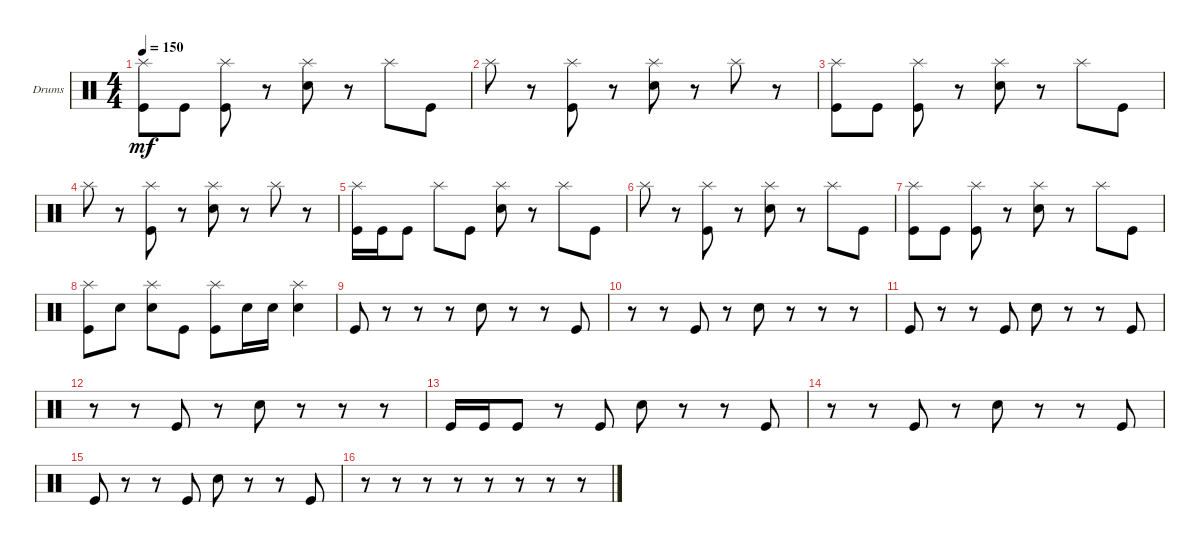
\bracketExtendMode groupsimilarinstruments
\firstSystemTrackNameOrientation horizontal
\otherSystemsTrackNameOrientation horizontal
\track ("Drumkit" "Drums") {instrument percussion}
\staff {score}
\articulation defaults
\ts (4 4)
\tempo 150
\clef neutral
\ks c
("Kick (hit)" "Splash (hit)").8{dy mf} "Kick (hit)".8 ("Kick (hit)" "Splash (hit)").8 r.8 ("Snare (hit) 2" "Splash (hit)").8 r.8 "Splash (hit)".8 "Kick (hit)".8 |
"Splash (hit)".8 r.8 ("Kick (hit)" "Splash (hit)").8 r.8 ("Snare (hit) 2" "Splash (hit)").8 r.8 "Splash (hit)".8 r.8 |
("Kick (hit)" "Splash (hit)").8 "Kick (hit)".8 ("Kick (hit)" "Splash (hit)").8 r.8 ("Snare (hit) 2" "Splash (hit)").8 r.8 "Splash (hit)".8 "Kick (hit)".8 |
"Splash (hit)".8 r.8 ("Kick (hit)" "Splash (hit)").8 r.8 ("Snare (hit) 2" "Splash (hit)").8 r.8 "Splash (hit)".8 r.8 |
("Kick (hit)" "Splash (hit)").16 "Kick (hit)".16 "Kick (hit)".8 "Splash (hit)".8 "Kick (hit)".8 ("Snare (hit) 2" "Splash (hit)").8 r.8 "Splash (hit)".8 "Kick (hit)".8 |
"Splash (hit)".8 r.8 ("Kick (hit)" "Splash (hit)").8 r.8 ("Snare (hit) 2" "Splash (hit)").8 r.8 "Splash (hit)".8 "Kick (hit)".8 |
("Kick (hit)" "Splash (hit)").8 "Kick (hit)".8 ("Kick (hit)" "Splash (hit)").8 r.8 ("Snare (hit) 2" "Splash (hit)").8 r.8 "Splash (hit)".8 "Kick (hit)".8 |
("Splash (hit)" "Kick (hit)").8 "Snare (hit) 2".8 ("Splash (hit)" "Snare (hit) 2").8 "Kick (hit)".8 ("Splash (hit)" "Kick (hit)").8 "Snare (hit) 2".16 "Snare (hit) 2".16 ("Snare (hit) 2" "Splash (hit)").4 |
"Kick (hit)".8 r.8 r.8 r.8 "Snare (hit) 2".8 r.8 r.8 "Kick (hit)".8 |
r.8 r.8 "Kick (hit)".8 r.8 "Snare (hit) 2".8 r.8 r.8 r.8 |
"Kick (hit)".8 r.8 r.8 "Kick (hit)".8 "Snare (hit) 2".8 r.8 r.8 "Kick (hit)".8 |
r.8 r.8 "Kick (hit)".8 r.8 "Snare (hit) 2".8 r.8 r.8 r.8 |
"Kick (hit)".16 "Kick (hit)".16 "Kick (hit)".8 r.8 "Kick (hit)".8 "Snare (hit) 2".8 r.8 r.8 "Kick (hit)".8 |
r.8 r.8 "Kick (hit)".8 r.8 "Snare (hit) 2".8 r.8 r.8 "Kick (hit)".8 |
"Kick (hit)".8 r.8 r.8 "Kick (hit)".8 "Snare (hit) 2".8 r.8 r.8 "Kick (hit)".8 |
r.8 r.8 r.8 r.8 r.8 r.8 r.8 r.8
